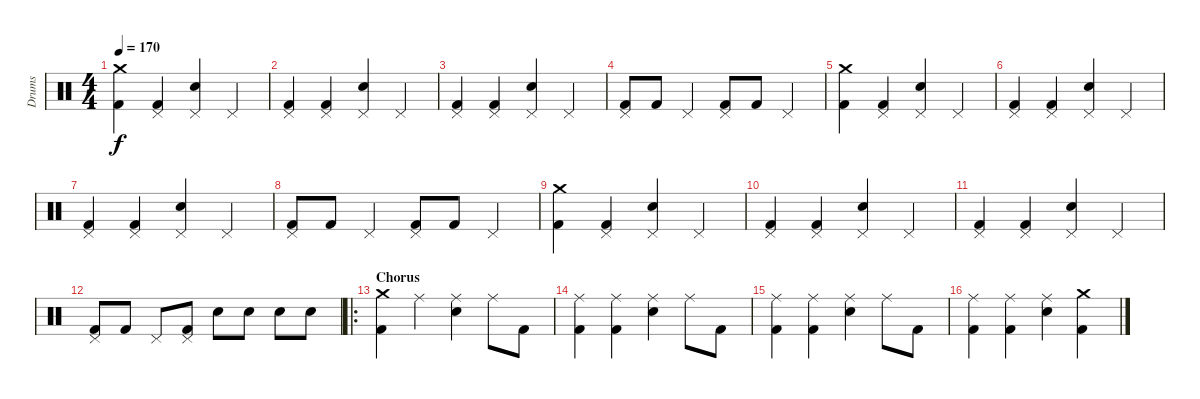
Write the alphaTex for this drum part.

\track ("Drums" "Drums") {instrument percussion}
\staff {score}
\articulation defaults
\ts (4 4)
\tempo 170
\clef neutral
\ks c
("Crash medium (hit)" "Kick (hit) 2").4{dy f} ("Pedal Hi-Hat (hit)" "Kick (hit) 2").4 ("Pedal Hi-Hat (hit)" "Electric Snare (hit)").4 "Pedal Hi-Hat (hit)".4 |
("Pedal Hi-Hat (hit)" "Kick (hit) 2").4 ("Pedal Hi-Hat (hit)" "Kick (hit) 2").4 ("Pedal Hi-Hat (hit)" "Electric Snare (hit)").4 "Pedal Hi-Hat (hit)".4 |
("Pedal Hi-Hat (hit)" "Kick (hit) 2").4 ("Pedal Hi-Hat (hit)" "Kick (hit) 2").4 ("Pedal Hi-Hat (hit)" "Electric Snare (hit)").4 "Pedal Hi-Hat (hit)".4 |
("Pedal Hi-Hat (hit)" "Kick (hit) 2").8 "Kick (hit) 2".8 "Pedal Hi-Hat (hit)".4 ("Pedal Hi-Hat (hit)" "Kick (hit) 2").8 "Kick (hit) 2".8 "Pedal Hi-Hat (hit)".4 |
("Crash medium (hit)" "Kick (hit) 2").4 ("Pedal Hi-Hat (hit)" "Kick (hit) 2").4 ("Pedal Hi-Hat (hit)" "Electric Snare (hit)").4 "Pedal Hi-Hat (hit)".4 |
("Pedal Hi-Hat (hit)" "Kick (hit) 2").4 ("Pedal Hi-Hat (hit)" "Kick (hit) 2").4 ("Pedal Hi-Hat (hit)" "Electric Snare (hit)").4 "Pedal Hi-Hat (hit)".4 |
("Pedal Hi-Hat (hit)" "Kick (hit) 2").4 ("Pedal Hi-Hat (hit)" "Kick (hit) 2").4 ("Pedal Hi-Hat (hit)" "Electric Snare (hit)").4 "Pedal Hi-Hat (hit)".4 |
("Pedal Hi-Hat (hit)" "Kick (hit) 2").8 "Kick (hit) 2".8 "Pedal Hi-Hat (hit)".4 ("Pedal Hi-Hat (hit)" "Kick (hit) 2").8 "Kick (hit) 2".8 "Pedal Hi-Hat (hit)".4 |
("Crash medium (hit)" "Kick (hit) 2").4 ("Pedal Hi-Hat (hit)" "Kick (hit) 2").4 ("Pedal Hi-Hat (hit)" "Electric Snare (hit)").4 "Pedal Hi-Hat (hit)".4 |
("Pedal Hi-Hat (hit)" "Kick (hit) 2").4 ("Pedal Hi-Hat (hit)" "Kick (hit) 2").4 ("Pedal Hi-Hat (hit)" "Electric Snare (hit)").4 "Pedal Hi-Hat (hit)".4 |
("Pedal Hi-Hat (hit)" "Kick (hit) 2").4 ("Pedal Hi-Hat (hit)" "Kick (hit) 2").4 ("Pedal Hi-Hat (hit)" "Electric Snare (hit)").4 "Pedal Hi-Hat (hit)".4 |
("Pedal Hi-Hat (hit)" "Kick (hit) 2").8 "Kick (hit) 2".8 "Pedal Hi-Hat (hit)".8 ("Pedal Hi-Hat (hit)" "Kick (hit) 2").8 "Electric Snare (hit)".8 "Electric Snare (hit)".8 "Electric Snare (hit)".8 "Electric Snare (hit)".8 |
\ro
\section ("" "Chorus")
("Crash medium (hit)" "Kick (hit) 2").4 "Ride (middle)".4 ("Ride (middle)" "Electric Snare (hit)").4 "Ride (middle)".8 "Kick (hit) 2".8 |
("Ride (middle)" "Kick (hit) 2").4 ("Ride (middle)" "Kick (hit) 2").4 ("Ride (middle)" "Electric Snare (hit)").4 "Ride (middle)".8 "Kick (hit) 2".8 |
("Ride (middle)" "Kick (hit) 2").4 ("Ride (middle)" "Kick (hit) 2").4 ("Ride (middle)" "Electric Snare (hit)").4 "Ride (middle)".8 "Kick (hit) 2".8 |
("Ride (middle)" "Kick (hit) 2").4 ("Ride (middle)" "Kick (hit) 2").4 ("Ride (middle)" "Electric Snare (hit)").4 ("Crash medium (hit)" "Kick (hit) 2").4
